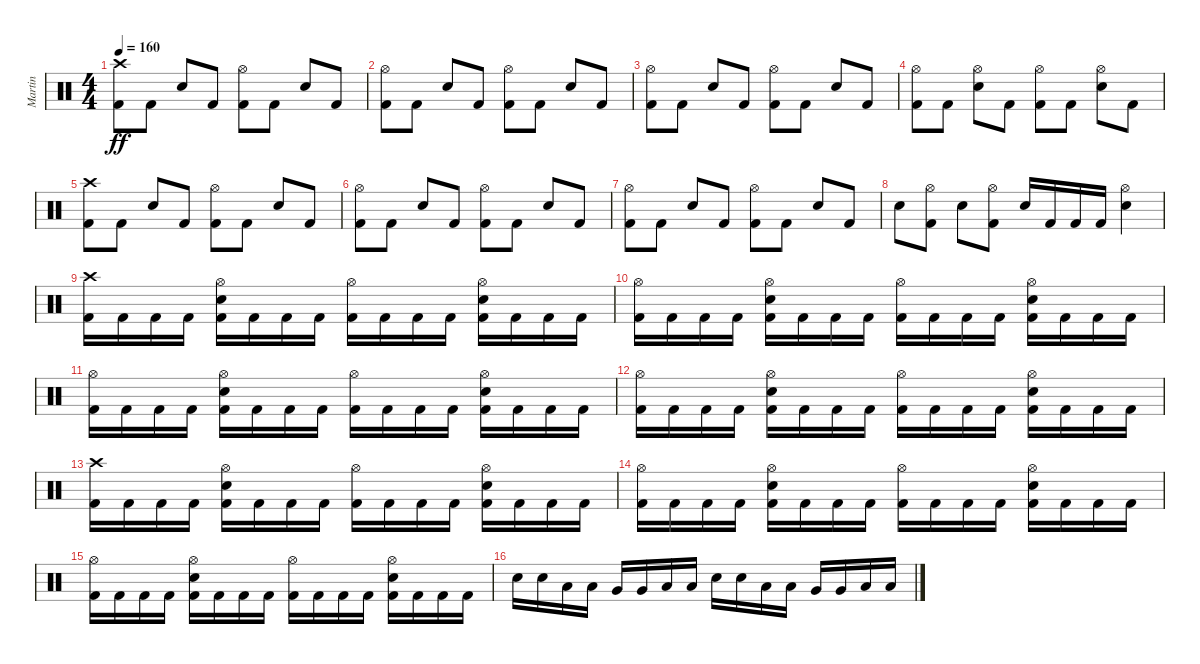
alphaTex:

\track ("Martin" "Martin") {instrument percussion}
\staff {score}
\articulation defaults
\ts (4 4)
\tempo 160
\clef neutral
\ks c
("Crash high (hit)" "Kick (hit) 2").8{dy ff} "Kick (hit) 2".8 "Electric Snare (hit)".8 "Kick (hit) 2".8 ("Hi-Hat (open)" "Kick (hit) 2").8 "Kick (hit) 2".8 "Electric Snare (hit)".8 "Kick (hit) 2".8 |
("Hi-Hat (open)" "Kick (hit) 2").8 "Kick (hit) 2".8 "Electric Snare (hit)".8 "Kick (hit) 2".8 ("Hi-Hat (open)" "Kick (hit) 2").8 "Kick (hit) 2".8 "Electric Snare (hit)".8 "Kick (hit) 2".8 |
("Hi-Hat (open)" "Kick (hit) 2").8 "Kick (hit) 2".8 "Electric Snare (hit)".8 "Kick (hit) 2".8 ("Hi-Hat (open)" "Kick (hit) 2").8 "Kick (hit) 2".8 "Electric Snare (hit)".8 "Kick (hit) 2".8 |
("Hi-Hat (open)" "Kick (hit) 2").8 "Kick (hit) 2".8 ("Hi-Hat (open)" "Electric Snare (hit)").8 "Kick (hit) 2".8 ("Hi-Hat (open)" "Kick (hit) 2").8 "Kick (hit) 2".8 ("Hi-Hat (open)" "Electric Snare (hit)").8 "Kick (hit) 2".8 |
("Crash high (hit)" "Kick (hit) 2").8 "Kick (hit) 2".8 "Electric Snare (hit)".8 "Kick (hit) 2".8 ("Hi-Hat (open)" "Kick (hit) 2").8 "Kick (hit) 2".8 "Electric Snare (hit)".8 "Kick (hit) 2".8 |
("Hi-Hat (open)" "Kick (hit) 2").8 "Kick (hit) 2".8 "Electric Snare (hit)".8 "Kick (hit) 2".8 ("Hi-Hat (open)" "Kick (hit) 2").8 "Kick (hit) 2".8 "Electric Snare (hit)".8 "Kick (hit) 2".8 |
("Hi-Hat (open)" "Kick (hit) 2").8 "Kick (hit) 2".8 "Electric Snare (hit)".8 "Kick (hit) 2".8 ("Hi-Hat (open)" "Kick (hit) 2").8 "Kick (hit) 2".8 "Electric Snare (hit)".8 "Kick (hit) 2".8 |
"Electric Snare (hit)".8 ("Hi-Hat (open)" "Kick (hit) 2").8 "Electric Snare (hit)".8 ("Hi-Hat (open)" "Kick (hit) 2").8 "Electric Snare (hit)".16 "Kick (hit) 2".16 "Kick (hit) 2".16 "Kick (hit) 2".16 ("Hi-Hat (open)" "Electric Snare (hit)").4 |
("Crash high (hit)" "Kick (hit) 2").16 "Kick (hit) 2".16 "Kick (hit) 2".16 "Kick (hit) 2".16 ("Hi-Hat (open)" "Electric Snare (hit)" "Kick (hit) 2").16 "Kick (hit) 2".16 "Kick (hit) 2".16 "Kick (hit) 2".16 ("Hi-Hat (open)" "Kick (hit) 2").16 "Kick (hit) 2".16 "Kick (hit) 2".16 "Kick (hit) 2".16 ("Hi-Hat (open)" "Electric Snare (hit)" "Kick (hit) 2").16 "Kick (hit) 2".16 "Kick (hit) 2".16 "Kick (hit) 2".16 |
("Hi-Hat (open)" "Kick (hit) 2").16 "Kick (hit) 2".16 "Kick (hit) 2".16 "Kick (hit) 2".16 ("Hi-Hat (open)" "Electric Snare (hit)" "Kick (hit) 2").16 "Kick (hit) 2".16 "Kick (hit) 2".16 "Kick (hit) 2".16 ("Hi-Hat (open)" "Kick (hit) 2").16 "Kick (hit) 2".16 "Kick (hit) 2".16 "Kick (hit) 2".16 ("Hi-Hat (open)" "Electric Snare (hit)" "Kick (hit) 2").16 "Kick (hit) 2".16 "Kick (hit) 2".16 "Kick (hit) 2".16 |
("Hi-Hat (open)" "Kick (hit) 2").16 "Kick (hit) 2".16 "Kick (hit) 2".16 "Kick (hit) 2".16 ("Hi-Hat (open)" "Electric Snare (hit)" "Kick (hit) 2").16 "Kick (hit) 2".16 "Kick (hit) 2".16 "Kick (hit) 2".16 ("Hi-Hat (open)" "Kick (hit) 2").16 "Kick (hit) 2".16 "Kick (hit) 2".16 "Kick (hit) 2".16 ("Hi-Hat (open)" "Electric Snare (hit)" "Kick (hit) 2").16 "Kick (hit) 2".16 "Kick (hit) 2".16 "Kick (hit) 2".16 |
("Hi-Hat (open)" "Kick (hit) 2").16 "Kick (hit) 2".16 "Kick (hit) 2".16 "Kick (hit) 2".16 ("Hi-Hat (open)" "Electric Snare (hit)" "Kick (hit) 2").16 "Kick (hit) 2".16 "Kick (hit) 2".16 "Kick (hit) 2".16 ("Hi-Hat (open)" "Kick (hit) 2").16 "Kick (hit) 2".16 "Kick (hit) 2".16 "Kick (hit) 2".16 ("Hi-Hat (open)" "Electric Snare (hit)" "Kick (hit) 2").16 "Kick (hit) 2".16 "Kick (hit) 2".16 "Kick (hit) 2".16 |
("Crash high (hit)" "Kick (hit) 2").16 "Kick (hit) 2".16 "Kick (hit) 2".16 "Kick (hit) 2".16 ("Hi-Hat (open)" "Electric Snare (hit)" "Kick (hit) 2").16 "Kick (hit) 2".16 "Kick (hit) 2".16 "Kick (hit) 2".16 ("Hi-Hat (open)" "Kick (hit) 2").16 "Kick (hit) 2".16 "Kick (hit) 2".16 "Kick (hit) 2".16 ("Hi-Hat (open)" "Electric Snare (hit)" "Kick (hit) 2").16 "Kick (hit) 2".16 "Kick (hit) 2".16 "Kick (hit) 2".16 |
("Hi-Hat (open)" "Kick (hit) 2").16 "Kick (hit) 2".16 "Kick (hit) 2".16 "Kick (hit) 2".16 ("Hi-Hat (open)" "Electric Snare (hit)" "Kick (hit) 2").16 "Kick (hit) 2".16 "Kick (hit) 2".16 "Kick (hit) 2".16 ("Hi-Hat (open)" "Kick (hit) 2").16 "Kick (hit) 2".16 "Kick (hit) 2".16 "Kick (hit) 2".16 ("Hi-Hat (open)" "Electric Snare (hit)" "Kick (hit) 2").16 "Kick (hit) 2".16 "Kick (hit) 2".16 "Kick (hit) 2".16 |
("Hi-Hat (open)" "Kick (hit) 2").16 "Kick (hit) 2".16 "Kick (hit) 2".16 "Kick (hit) 2".16 ("Hi-Hat (open)" "Electric Snare (hit)" "Kick (hit) 2").16 "Kick (hit) 2".16 "Kick (hit) 2".16 "Kick (hit) 2".16 ("Hi-Hat (open)" "Kick (hit) 2").16 "Kick (hit) 2".16 "Kick (hit) 2".16 "Kick (hit) 2".16 ("Hi-Hat (open)" "Electric Snare (hit)" "Kick (hit) 2").16 "Kick (hit) 2".16 "Kick (hit) 2".16 "Kick (hit) 2".16 |
"Electric Snare (hit)".16 "Electric Snare (hit)".16 "Low Tom (hit)".16 "Low Tom (hit)".16 "Very Low Tom (hit)".16 "Very Low Tom (hit)".16 "Low Floor Tom (hit)".16 "Low Floor Tom (hit)".16 "Electric Snare (hit)".16 "Electric Snare (hit)".16 "Low Tom (hit)".16 "Low Tom (hit)".16 "Very Low Tom (hit)".16 "Very Low Tom (hit)".16 "Low Floor Tom (hit)".16 "Low Floor Tom (hit)".16
